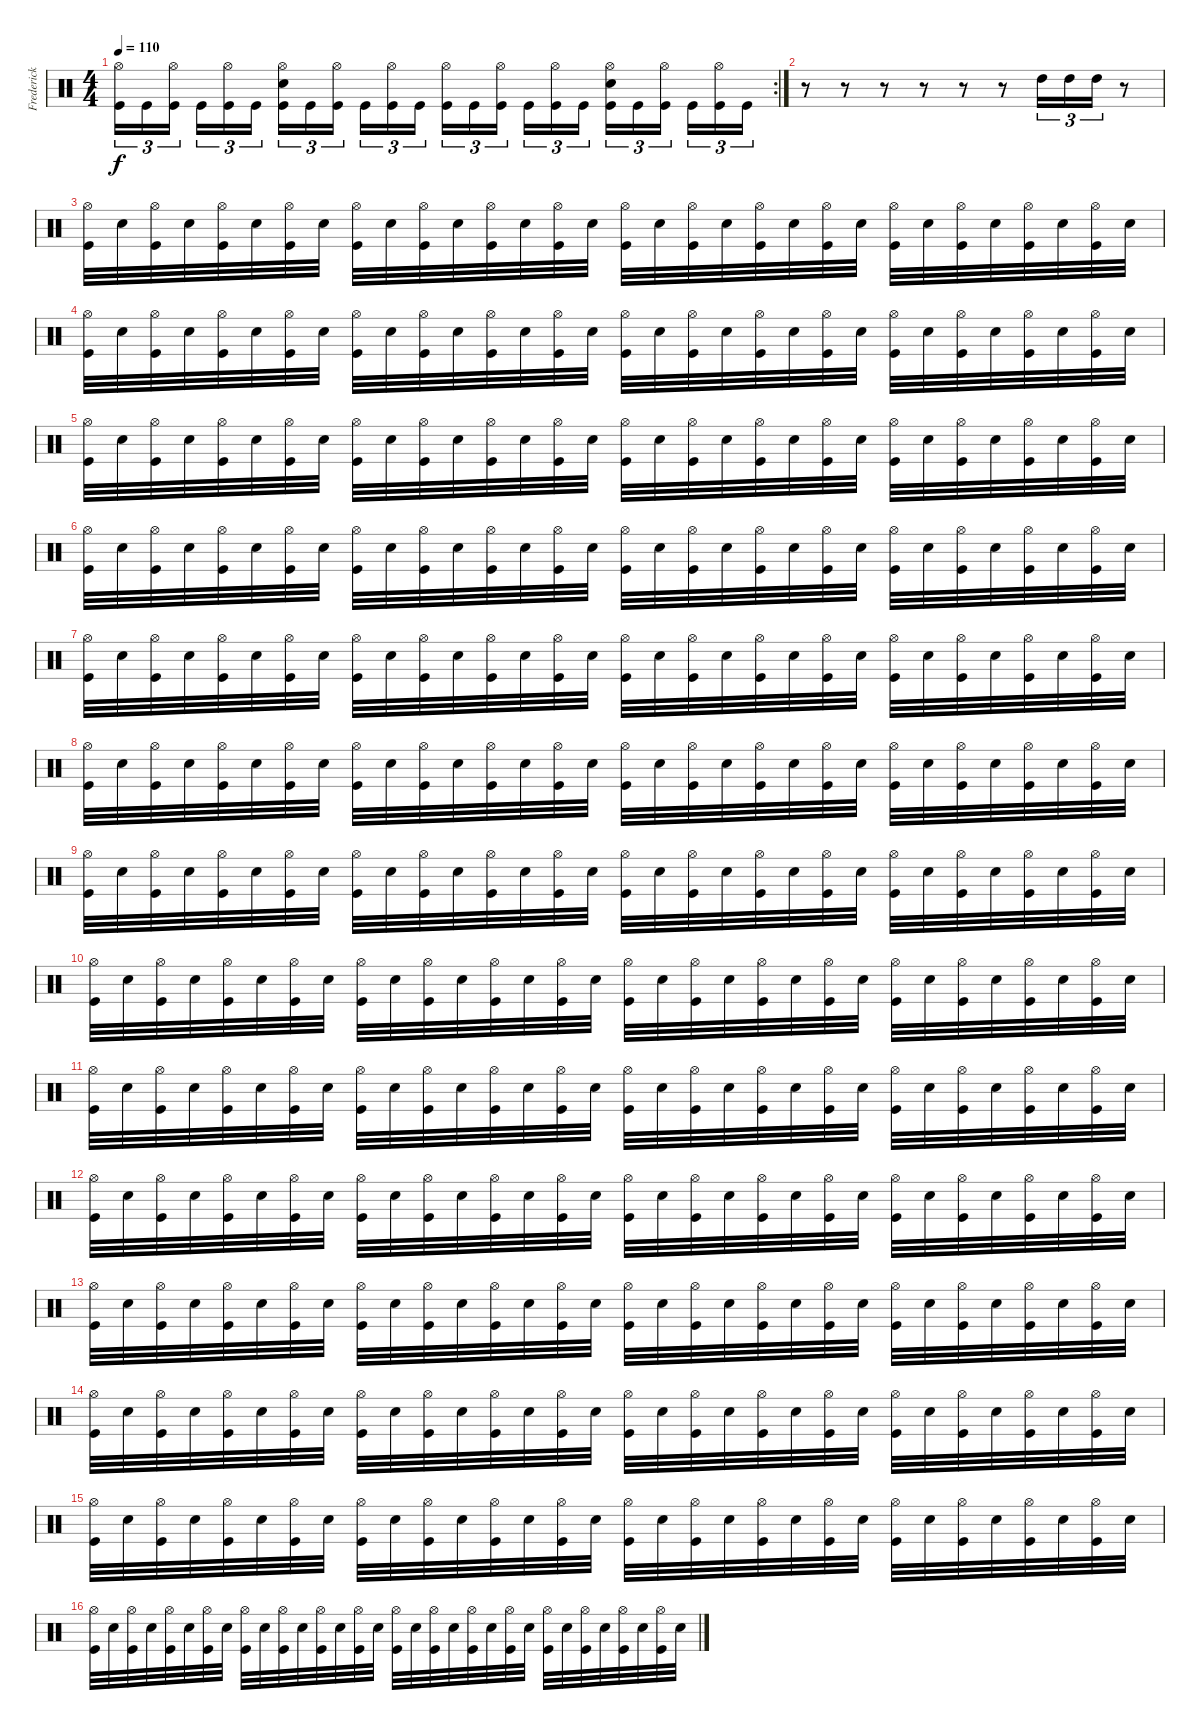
\track ("Frederick" "Frederick") {instrument percussion}
\staff {score}
\articulation defaults
\rc 2
\ts (4 4)
\tempo 110
\clef neutral
\ks c
("Hi-Hat (open)" "Kick (hit)").16{tu (3 2) dy f} "Kick (hit)".16{tu (3 2)} ("Hi-Hat (open)" "Kick (hit)").16{tu (3 2)} "Kick (hit)".16{tu (3 2)} ("Hi-Hat (open)" "Kick (hit)").16{tu (3 2)} "Kick (hit)".16{tu (3 2)} ("Hi-Hat (open)" "Electric Snare (hit)" "Kick (hit)").16{tu (3 2)} "Kick (hit)".16{tu (3 2)} ("Hi-Hat (open)" "Kick (hit)").16{tu (3 2)} "Kick (hit)".16{tu (3 2)} ("Hi-Hat (open)" "Kick (hit)").16{tu (3 2)} "Kick (hit)".16{tu (3 2)} ("Hi-Hat (open)" "Kick (hit)").16{tu (3 2)} "Kick (hit)".16{tu (3 2)} ("Hi-Hat (open)" "Kick (hit)").16{tu (3 2)} "Kick (hit)".16{tu (3 2)} ("Hi-Hat (open)" "Kick (hit)").16{tu (3 2)} "Kick (hit)".16{tu (3 2)} ("Hi-Hat (open)" "Electric Snare (hit)" "Kick (hit)").16{tu (3 2)} "Kick (hit)".16{tu (3 2)} ("Hi-Hat (open)" "Kick (hit)").16{tu (3 2)} "Kick (hit)".16{tu (3 2)} ("Hi-Hat (open)" "Kick (hit)").16{tu (3 2)} "Kick (hit)".16{tu (3 2)} |
r.8 r.8 r.8 r.8 r.8 r.8 "High Tom (hit)".16{tu (3 2)} "High Tom (hit)".16{tu (3 2)} "High Tom (hit)".16{tu (3 2)} r.8 |
("Hi-Hat (open)" "Kick (hit)").32 "Electric Snare (hit)".32 ("Hi-Hat (open)" "Kick (hit)").32 "Electric Snare (hit)".32 ("Hi-Hat (open)" "Kick (hit)").32 "Electric Snare (hit)".32 ("Hi-Hat (open)" "Kick (hit)").32 "Electric Snare (hit)".32 ("Hi-Hat (open)" "Kick (hit)").32 "Electric Snare (hit)".32 ("Hi-Hat (open)" "Kick (hit)").32 "Electric Snare (hit)".32 ("Hi-Hat (open)" "Kick (hit)").32 "Electric Snare (hit)".32 ("Hi-Hat (open)" "Kick (hit)").32 "Electric Snare (hit)".32 ("Hi-Hat (open)" "Kick (hit)").32 "Electric Snare (hit)".32 ("Hi-Hat (open)" "Kick (hit)").32 "Electric Snare (hit)".32 ("Hi-Hat (open)" "Kick (hit)").32 "Electric Snare (hit)".32 ("Hi-Hat (open)" "Kick (hit)").32 "Electric Snare (hit)".32 ("Hi-Hat (open)" "Kick (hit)").32 "Electric Snare (hit)".32 ("Hi-Hat (open)" "Kick (hit)").32 "Electric Snare (hit)".32 ("Hi-Hat (open)" "Kick (hit)").32 "Electric Snare (hit)".32 ("Hi-Hat (open)" "Kick (hit)").32 "Electric Snare (hit)".32 |
("Hi-Hat (open)" "Kick (hit)").32 "Electric Snare (hit)".32 ("Hi-Hat (open)" "Kick (hit)").32 "Electric Snare (hit)".32 ("Hi-Hat (open)" "Kick (hit)").32 "Electric Snare (hit)".32 ("Hi-Hat (open)" "Kick (hit)").32 "Electric Snare (hit)".32 ("Hi-Hat (open)" "Kick (hit)").32 "Electric Snare (hit)".32 ("Hi-Hat (open)" "Kick (hit)").32 "Electric Snare (hit)".32 ("Hi-Hat (open)" "Kick (hit)").32 "Electric Snare (hit)".32 ("Hi-Hat (open)" "Kick (hit)").32 "Electric Snare (hit)".32 ("Hi-Hat (open)" "Kick (hit)").32 "Electric Snare (hit)".32 ("Hi-Hat (open)" "Kick (hit)").32 "Electric Snare (hit)".32 ("Hi-Hat (open)" "Kick (hit)").32 "Electric Snare (hit)".32 ("Hi-Hat (open)" "Kick (hit)").32 "Electric Snare (hit)".32 ("Hi-Hat (open)" "Kick (hit)").32 "Electric Snare (hit)".32 ("Hi-Hat (open)" "Kick (hit)").32 "Electric Snare (hit)".32 ("Hi-Hat (open)" "Kick (hit)").32 "Electric Snare (hit)".32 ("Hi-Hat (open)" "Kick (hit)").32 "Electric Snare (hit)".32 |
("Hi-Hat (open)" "Kick (hit)").32 "Electric Snare (hit)".32 ("Hi-Hat (open)" "Kick (hit)").32 "Electric Snare (hit)".32 ("Hi-Hat (open)" "Kick (hit)").32 "Electric Snare (hit)".32 ("Hi-Hat (open)" "Kick (hit)").32 "Electric Snare (hit)".32 ("Hi-Hat (open)" "Kick (hit)").32 "Electric Snare (hit)".32 ("Hi-Hat (open)" "Kick (hit)").32 "Electric Snare (hit)".32 ("Hi-Hat (open)" "Kick (hit)").32 "Electric Snare (hit)".32 ("Hi-Hat (open)" "Kick (hit)").32 "Electric Snare (hit)".32 ("Hi-Hat (open)" "Kick (hit)").32 "Electric Snare (hit)".32 ("Hi-Hat (open)" "Kick (hit)").32 "Electric Snare (hit)".32 ("Hi-Hat (open)" "Kick (hit)").32 "Electric Snare (hit)".32 ("Hi-Hat (open)" "Kick (hit)").32 "Electric Snare (hit)".32 ("Hi-Hat (open)" "Kick (hit)").32 "Electric Snare (hit)".32 ("Hi-Hat (open)" "Kick (hit)").32 "Electric Snare (hit)".32 ("Hi-Hat (open)" "Kick (hit)").32 "Electric Snare (hit)".32 ("Hi-Hat (open)" "Kick (hit)").32 "Electric Snare (hit)".32 |
("Hi-Hat (open)" "Kick (hit)").32 "Electric Snare (hit)".32 ("Hi-Hat (open)" "Kick (hit)").32 "Electric Snare (hit)".32 ("Hi-Hat (open)" "Kick (hit)").32 "Electric Snare (hit)".32 ("Hi-Hat (open)" "Kick (hit)").32 "Electric Snare (hit)".32 ("Hi-Hat (open)" "Kick (hit)").32 "Electric Snare (hit)".32 ("Hi-Hat (open)" "Kick (hit)").32 "Electric Snare (hit)".32 ("Hi-Hat (open)" "Kick (hit)").32 "Electric Snare (hit)".32 ("Hi-Hat (open)" "Kick (hit)").32 "Electric Snare (hit)".32 ("Hi-Hat (open)" "Kick (hit)").32 "Electric Snare (hit)".32 ("Hi-Hat (open)" "Kick (hit)").32 "Electric Snare (hit)".32 ("Hi-Hat (open)" "Kick (hit)").32 "Electric Snare (hit)".32 ("Hi-Hat (open)" "Kick (hit)").32 "Electric Snare (hit)".32 ("Hi-Hat (open)" "Kick (hit)").32 "Electric Snare (hit)".32 ("Hi-Hat (open)" "Kick (hit)").32 "Electric Snare (hit)".32 ("Hi-Hat (open)" "Kick (hit)").32 "Electric Snare (hit)".32 ("Hi-Hat (open)" "Kick (hit)").32 "Electric Snare (hit)".32 |
("Hi-Hat (open)" "Kick (hit)").32 "Electric Snare (hit)".32 ("Hi-Hat (open)" "Kick (hit)").32 "Electric Snare (hit)".32 ("Hi-Hat (open)" "Kick (hit)").32 "Electric Snare (hit)".32 ("Hi-Hat (open)" "Kick (hit)").32 "Electric Snare (hit)".32 ("Hi-Hat (open)" "Kick (hit)").32 "Electric Snare (hit)".32 ("Hi-Hat (open)" "Kick (hit)").32 "Electric Snare (hit)".32 ("Hi-Hat (open)" "Kick (hit)").32 "Electric Snare (hit)".32 ("Hi-Hat (open)" "Kick (hit)").32 "Electric Snare (hit)".32 ("Hi-Hat (open)" "Kick (hit)").32 "Electric Snare (hit)".32 ("Hi-Hat (open)" "Kick (hit)").32 "Electric Snare (hit)".32 ("Hi-Hat (open)" "Kick (hit)").32 "Electric Snare (hit)".32 ("Hi-Hat (open)" "Kick (hit)").32 "Electric Snare (hit)".32 ("Hi-Hat (open)" "Kick (hit)").32 "Electric Snare (hit)".32 ("Hi-Hat (open)" "Kick (hit)").32 "Electric Snare (hit)".32 ("Hi-Hat (open)" "Kick (hit)").32 "Electric Snare (hit)".32 ("Hi-Hat (open)" "Kick (hit)").32 "Electric Snare (hit)".32 |
("Hi-Hat (open)" "Kick (hit)").32 "Electric Snare (hit)".32 ("Hi-Hat (open)" "Kick (hit)").32 "Electric Snare (hit)".32 ("Hi-Hat (open)" "Kick (hit)").32 "Electric Snare (hit)".32 ("Hi-Hat (open)" "Kick (hit)").32 "Electric Snare (hit)".32 ("Hi-Hat (open)" "Kick (hit)").32 "Electric Snare (hit)".32 ("Hi-Hat (open)" "Kick (hit)").32 "Electric Snare (hit)".32 ("Hi-Hat (open)" "Kick (hit)").32 "Electric Snare (hit)".32 ("Hi-Hat (open)" "Kick (hit)").32 "Electric Snare (hit)".32 ("Hi-Hat (open)" "Kick (hit)").32 "Electric Snare (hit)".32 ("Hi-Hat (open)" "Kick (hit)").32 "Electric Snare (hit)".32 ("Hi-Hat (open)" "Kick (hit)").32 "Electric Snare (hit)".32 ("Hi-Hat (open)" "Kick (hit)").32 "Electric Snare (hit)".32 ("Hi-Hat (open)" "Kick (hit)").32 "Electric Snare (hit)".32 ("Hi-Hat (open)" "Kick (hit)").32 "Electric Snare (hit)".32 ("Hi-Hat (open)" "Kick (hit)").32 "Electric Snare (hit)".32 ("Hi-Hat (open)" "Kick (hit)").32 "Electric Snare (hit)".32 |
("Hi-Hat (open)" "Kick (hit)").32 "Electric Snare (hit)".32 ("Hi-Hat (open)" "Kick (hit)").32 "Electric Snare (hit)".32 ("Hi-Hat (open)" "Kick (hit)").32 "Electric Snare (hit)".32 ("Hi-Hat (open)" "Kick (hit)").32 "Electric Snare (hit)".32 ("Hi-Hat (open)" "Kick (hit)").32 "Electric Snare (hit)".32 ("Hi-Hat (open)" "Kick (hit)").32 "Electric Snare (hit)".32 ("Hi-Hat (open)" "Kick (hit)").32 "Electric Snare (hit)".32 ("Hi-Hat (open)" "Kick (hit)").32 "Electric Snare (hit)".32 ("Hi-Hat (open)" "Kick (hit)").32 "Electric Snare (hit)".32 ("Hi-Hat (open)" "Kick (hit)").32 "Electric Snare (hit)".32 ("Hi-Hat (open)" "Kick (hit)").32 "Electric Snare (hit)".32 ("Hi-Hat (open)" "Kick (hit)").32 "Electric Snare (hit)".32 ("Hi-Hat (open)" "Kick (hit)").32 "Electric Snare (hit)".32 ("Hi-Hat (open)" "Kick (hit)").32 "Electric Snare (hit)".32 ("Hi-Hat (open)" "Kick (hit)").32 "Electric Snare (hit)".32 ("Hi-Hat (open)" "Kick (hit)").32 "Electric Snare (hit)".32 |
("Hi-Hat (open)" "Kick (hit)").32 "Electric Snare (hit)".32 ("Hi-Hat (open)" "Kick (hit)").32 "Electric Snare (hit)".32 ("Hi-Hat (open)" "Kick (hit)").32 "Electric Snare (hit)".32 ("Hi-Hat (open)" "Kick (hit)").32 "Electric Snare (hit)".32 ("Hi-Hat (open)" "Kick (hit)").32 "Electric Snare (hit)".32 ("Hi-Hat (open)" "Kick (hit)").32 "Electric Snare (hit)".32 ("Hi-Hat (open)" "Kick (hit)").32 "Electric Snare (hit)".32 ("Hi-Hat (open)" "Kick (hit)").32 "Electric Snare (hit)".32 ("Hi-Hat (open)" "Kick (hit)").32 "Electric Snare (hit)".32 ("Hi-Hat (open)" "Kick (hit)").32 "Electric Snare (hit)".32 ("Hi-Hat (open)" "Kick (hit)").32 "Electric Snare (hit)".32 ("Hi-Hat (open)" "Kick (hit)").32 "Electric Snare (hit)".32 ("Hi-Hat (open)" "Kick (hit)").32 "Electric Snare (hit)".32 ("Hi-Hat (open)" "Kick (hit)").32 "Electric Snare (hit)".32 ("Hi-Hat (open)" "Kick (hit)").32 "Electric Snare (hit)".32 ("Hi-Hat (open)" "Kick (hit)").32 "Electric Snare (hit)".32 |
("Hi-Hat (open)" "Kick (hit)").32 "Electric Snare (hit)".32 ("Hi-Hat (open)" "Kick (hit)").32 "Electric Snare (hit)".32 ("Hi-Hat (open)" "Kick (hit)").32 "Electric Snare (hit)".32 ("Hi-Hat (open)" "Kick (hit)").32 "Electric Snare (hit)".32 ("Hi-Hat (open)" "Kick (hit)").32 "Electric Snare (hit)".32 ("Hi-Hat (open)" "Kick (hit)").32 "Electric Snare (hit)".32 ("Hi-Hat (open)" "Kick (hit)").32 "Electric Snare (hit)".32 ("Hi-Hat (open)" "Kick (hit)").32 "Electric Snare (hit)".32 ("Hi-Hat (open)" "Kick (hit)").32 "Electric Snare (hit)".32 ("Hi-Hat (open)" "Kick (hit)").32 "Electric Snare (hit)".32 ("Hi-Hat (open)" "Kick (hit)").32 "Electric Snare (hit)".32 ("Hi-Hat (open)" "Kick (hit)").32 "Electric Snare (hit)".32 ("Hi-Hat (open)" "Kick (hit)").32 "Electric Snare (hit)".32 ("Hi-Hat (open)" "Kick (hit)").32 "Electric Snare (hit)".32 ("Hi-Hat (open)" "Kick (hit)").32 "Electric Snare (hit)".32 ("Hi-Hat (open)" "Kick (hit)").32 "Electric Snare (hit)".32 |
("Hi-Hat (open)" "Kick (hit)").32 "Electric Snare (hit)".32 ("Hi-Hat (open)" "Kick (hit)").32 "Electric Snare (hit)".32 ("Hi-Hat (open)" "Kick (hit)").32 "Electric Snare (hit)".32 ("Hi-Hat (open)" "Kick (hit)").32 "Electric Snare (hit)".32 ("Hi-Hat (open)" "Kick (hit)").32 "Electric Snare (hit)".32 ("Hi-Hat (open)" "Kick (hit)").32 "Electric Snare (hit)".32 ("Hi-Hat (open)" "Kick (hit)").32 "Electric Snare (hit)".32 ("Hi-Hat (open)" "Kick (hit)").32 "Electric Snare (hit)".32 ("Hi-Hat (open)" "Kick (hit)").32 "Electric Snare (hit)".32 ("Hi-Hat (open)" "Kick (hit)").32 "Electric Snare (hit)".32 ("Hi-Hat (open)" "Kick (hit)").32 "Electric Snare (hit)".32 ("Hi-Hat (open)" "Kick (hit)").32 "Electric Snare (hit)".32 ("Hi-Hat (open)" "Kick (hit)").32 "Electric Snare (hit)".32 ("Hi-Hat (open)" "Kick (hit)").32 "Electric Snare (hit)".32 ("Hi-Hat (open)" "Kick (hit)").32 "Electric Snare (hit)".32 ("Hi-Hat (open)" "Kick (hit)").32 "Electric Snare (hit)".32 |
("Hi-Hat (open)" "Kick (hit)").32 "Electric Snare (hit)".32 ("Hi-Hat (open)" "Kick (hit)").32 "Electric Snare (hit)".32 ("Hi-Hat (open)" "Kick (hit)").32 "Electric Snare (hit)".32 ("Hi-Hat (open)" "Kick (hit)").32 "Electric Snare (hit)".32 ("Hi-Hat (open)" "Kick (hit)").32 "Electric Snare (hit)".32 ("Hi-Hat (open)" "Kick (hit)").32 "Electric Snare (hit)".32 ("Hi-Hat (open)" "Kick (hit)").32 "Electric Snare (hit)".32 ("Hi-Hat (open)" "Kick (hit)").32 "Electric Snare (hit)".32 ("Hi-Hat (open)" "Kick (hit)").32 "Electric Snare (hit)".32 ("Hi-Hat (open)" "Kick (hit)").32 "Electric Snare (hit)".32 ("Hi-Hat (open)" "Kick (hit)").32 "Electric Snare (hit)".32 ("Hi-Hat (open)" "Kick (hit)").32 "Electric Snare (hit)".32 ("Hi-Hat (open)" "Kick (hit)").32 "Electric Snare (hit)".32 ("Hi-Hat (open)" "Kick (hit)").32 "Electric Snare (hit)".32 ("Hi-Hat (open)" "Kick (hit)").32 "Electric Snare (hit)".32 ("Hi-Hat (open)" "Kick (hit)").32 "Electric Snare (hit)".32 |
("Hi-Hat (open)" "Kick (hit)").32 "Electric Snare (hit)".32 ("Hi-Hat (open)" "Kick (hit)").32 "Electric Snare (hit)".32 ("Hi-Hat (open)" "Kick (hit)").32 "Electric Snare (hit)".32 ("Hi-Hat (open)" "Kick (hit)").32 "Electric Snare (hit)".32 ("Hi-Hat (open)" "Kick (hit)").32 "Electric Snare (hit)".32 ("Hi-Hat (open)" "Kick (hit)").32 "Electric Snare (hit)".32 ("Hi-Hat (open)" "Kick (hit)").32 "Electric Snare (hit)".32 ("Hi-Hat (open)" "Kick (hit)").32 "Electric Snare (hit)".32 ("Hi-Hat (open)" "Kick (hit)").32 "Electric Snare (hit)".32 ("Hi-Hat (open)" "Kick (hit)").32 "Electric Snare (hit)".32 ("Hi-Hat (open)" "Kick (hit)").32 "Electric Snare (hit)".32 ("Hi-Hat (open)" "Kick (hit)").32 "Electric Snare (hit)".32 ("Hi-Hat (open)" "Kick (hit)").32 "Electric Snare (hit)".32 ("Hi-Hat (open)" "Kick (hit)").32 "Electric Snare (hit)".32 ("Hi-Hat (open)" "Kick (hit)").32 "Electric Snare (hit)".32 ("Hi-Hat (open)" "Kick (hit)").32 "Electric Snare (hit)".32 |
("Hi-Hat (open)" "Kick (hit)").32 "Electric Snare (hit)".32 ("Hi-Hat (open)" "Kick (hit)").32 "Electric Snare (hit)".32 ("Hi-Hat (open)" "Kick (hit)").32 "Electric Snare (hit)".32 ("Hi-Hat (open)" "Kick (hit)").32 "Electric Snare (hit)".32 ("Hi-Hat (open)" "Kick (hit)").32 "Electric Snare (hit)".32 ("Hi-Hat (open)" "Kick (hit)").32 "Electric Snare (hit)".32 ("Hi-Hat (open)" "Kick (hit)").32 "Electric Snare (hit)".32 ("Hi-Hat (open)" "Kick (hit)").32 "Electric Snare (hit)".32 ("Hi-Hat (open)" "Kick (hit)").32 "Electric Snare (hit)".32 ("Hi-Hat (open)" "Kick (hit)").32 "Electric Snare (hit)".32 ("Hi-Hat (open)" "Kick (hit)").32 "Electric Snare (hit)".32 ("Hi-Hat (open)" "Kick (hit)").32 "Electric Snare (hit)".32 ("Hi-Hat (open)" "Kick (hit)").32 "Electric Snare (hit)".32 ("Hi-Hat (open)" "Kick (hit)").32 "Electric Snare (hit)".32 ("Hi-Hat (open)" "Kick (hit)").32 "Electric Snare (hit)".32 ("Hi-Hat (open)" "Kick (hit)").32 "Electric Snare (hit)".32 |
("Hi-Hat (open)" "Kick (hit)").32 "Electric Snare (hit)".32 ("Hi-Hat (open)" "Kick (hit)").32 "Electric Snare (hit)".32 ("Hi-Hat (open)" "Kick (hit)").32 "Electric Snare (hit)".32 ("Hi-Hat (open)" "Kick (hit)").32 "Electric Snare (hit)".32 ("Hi-Hat (open)" "Kick (hit)").32 "Electric Snare (hit)".32 ("Hi-Hat (open)" "Kick (hit)").32 "Electric Snare (hit)".32 ("Hi-Hat (open)" "Kick (hit)").32 "Electric Snare (hit)".32 ("Hi-Hat (open)" "Kick (hit)").32 "Electric Snare (hit)".32 ("Hi-Hat (open)" "Kick (hit)").32 "Electric Snare (hit)".32 ("Hi-Hat (open)" "Kick (hit)").32 "Electric Snare (hit)".32 ("Hi-Hat (open)" "Kick (hit)").32 "Electric Snare (hit)".32 ("Hi-Hat (open)" "Kick (hit)").32 "Electric Snare (hit)".32 ("Hi-Hat (open)" "Kick (hit)").32 "Electric Snare (hit)".32 ("Hi-Hat (open)" "Kick (hit)").32 "Electric Snare (hit)".32 ("Hi-Hat (open)" "Kick (hit)").32 "Electric Snare (hit)".32 ("Hi-Hat (open)" "Kick (hit)").32 "Electric Snare (hit)".32
